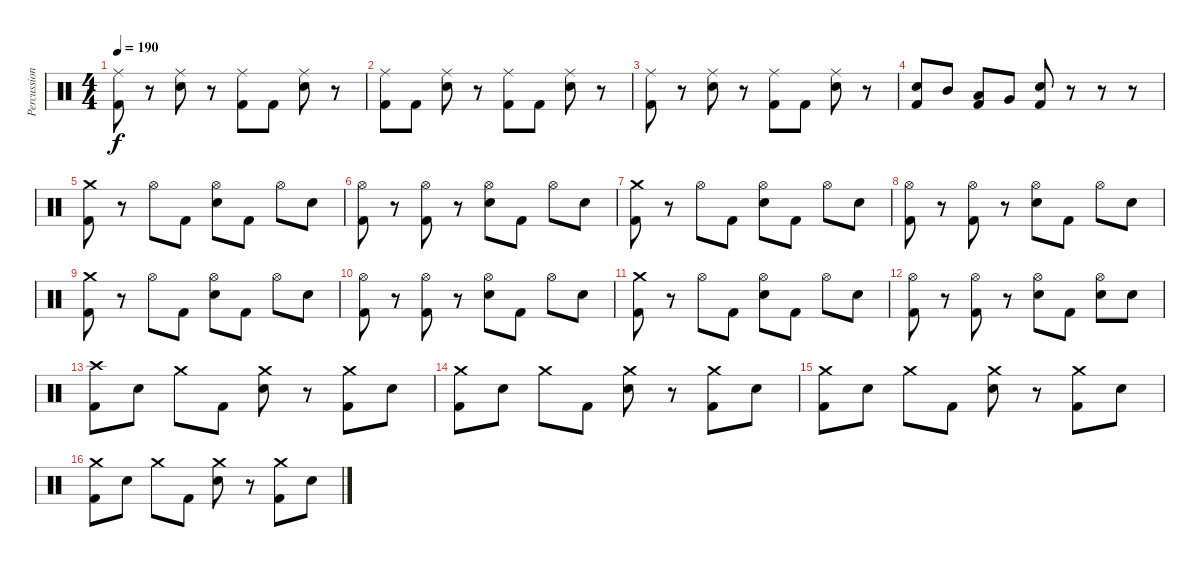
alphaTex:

\track ("Percussion" "Percussion") {instrument percussion}
\staff {score}
\articulation defaults
\ts (4 4)
\tempo 190
\clef neutral
\ks c
("Ride (middle)" "Kick (hit) 2").8{dy f} r.8 ("Ride (middle)" "Electric Snare (hit)").8 r.8 ("Ride (middle)" "Kick (hit) 2").8 "Kick (hit) 2".8 ("Ride (middle)" "Electric Snare (hit)").8 r.8 |
("Ride (middle)" "Kick (hit) 2").8 "Kick (hit) 2".8 ("Ride (middle)" "Electric Snare (hit)").8 r.8 ("Ride (middle)" "Kick (hit) 2").8 "Kick (hit) 2".8 ("Ride (middle)" "Electric Snare (hit)").8 r.8 |
("Ride (middle)" "Kick (hit) 2").8 r.8 ("Ride (middle)" "Electric Snare (hit)").8 r.8 ("Ride (middle)" "Kick (hit) 2").8 "Kick (hit) 2".8 ("Ride (middle)" "Electric Snare (hit)").8 r.8 |
("Electric Snare (hit)" "Kick (hit) 2").8 "Mid Tom (hit)".8 ("Low Tom (hit)" "Kick (hit) 2").8 "Very Low Tom (hit)".8 ("Electric Snare (hit)" "Kick (hit) 2").8 r.8 r.8 r.8 |
("Crash medium (hit)" "Kick (hit) 2").8 r.8 "Hi-Hat (open)".8 "Kick (hit) 2".8 ("Hi-Hat (open)" "Electric Snare (hit)").8 "Kick (hit) 2".8 "Hi-Hat (open)".8 "Electric Snare (hit)".8 |
("Hi-Hat (open)" "Kick (hit) 2").8 r.8 ("Hi-Hat (open)" "Kick (hit) 2").8 r.8 ("Hi-Hat (open)" "Electric Snare (hit)").8 "Kick (hit) 2".8 "Hi-Hat (open)".8 "Electric Snare (hit)".8 |
("Crash medium (hit)" "Kick (hit) 2").8 r.8 "Hi-Hat (open)".8 "Kick (hit) 2".8 ("Hi-Hat (open)" "Electric Snare (hit)").8 "Kick (hit) 2".8 "Hi-Hat (open)".8 "Electric Snare (hit)".8 |
("Hi-Hat (open)" "Kick (hit) 2").8 r.8 ("Hi-Hat (open)" "Kick (hit) 2").8 r.8 ("Hi-Hat (open)" "Electric Snare (hit)").8 "Kick (hit) 2".8 "Hi-Hat (open)".8 "Electric Snare (hit)".8 |
("Crash medium (hit)" "Kick (hit) 2").8 r.8 "Hi-Hat (open)".8 "Kick (hit) 2".8 ("Hi-Hat (open)" "Electric Snare (hit)").8 "Kick (hit) 2".8 "Hi-Hat (open)".8 "Electric Snare (hit)".8 |
("Hi-Hat (open)" "Kick (hit) 2").8 r.8 ("Hi-Hat (open)" "Kick (hit) 2").8 r.8 ("Hi-Hat (open)" "Electric Snare (hit)").8 "Kick (hit) 2".8 "Hi-Hat (open)".8 "Electric Snare (hit)".8 |
("Crash medium (hit)" "Kick (hit) 2").8 r.8 "Hi-Hat (open)".8 "Kick (hit) 2".8 ("Hi-Hat (open)" "Electric Snare (hit)").8 "Kick (hit) 2".8 "Hi-Hat (open)".8 "Electric Snare (hit)".8 |
("Hi-Hat (open)" "Kick (hit) 2").8 r.8 ("Hi-Hat (open)" "Kick (hit) 2").8 r.8 ("Hi-Hat (open)" "Electric Snare (hit)").8 "Kick (hit) 2".8 ("Hi-Hat (open)" "Electric Snare (hit)").8 "Electric Snare (hit)".8 |
("Crash high (hit)" "Kick (hit) 2").8 "Electric Snare (hit)".8 "Crash medium (hit)".8 "Kick (hit) 2".8 ("Crash medium (hit)" "Electric Snare (hit)").8 r.8 ("Crash medium (hit)" "Kick (hit) 2").8 "Electric Snare (hit)".8 |
("Crash medium (hit)" "Kick (hit) 2").8 "Electric Snare (hit)".8 "Crash medium (hit)".8 "Kick (hit) 2".8 ("Crash medium (hit)" "Electric Snare (hit)").8 r.8 ("Crash medium (hit)" "Kick (hit) 2").8 "Electric Snare (hit)".8 |
("Crash medium (hit)" "Kick (hit) 2").8 "Electric Snare (hit)".8 "Crash medium (hit)".8 "Kick (hit) 2".8 ("Crash medium (hit)" "Electric Snare (hit)").8 r.8 ("Crash medium (hit)" "Kick (hit) 2").8 "Electric Snare (hit)".8 |
("Crash medium (hit)" "Kick (hit) 2").8 "Electric Snare (hit)".8 "Crash medium (hit)".8 "Kick (hit) 2".8 ("Crash medium (hit)" "Electric Snare (hit)").8 r.8 ("Crash medium (hit)" "Kick (hit) 2").8 "Electric Snare (hit)".8
